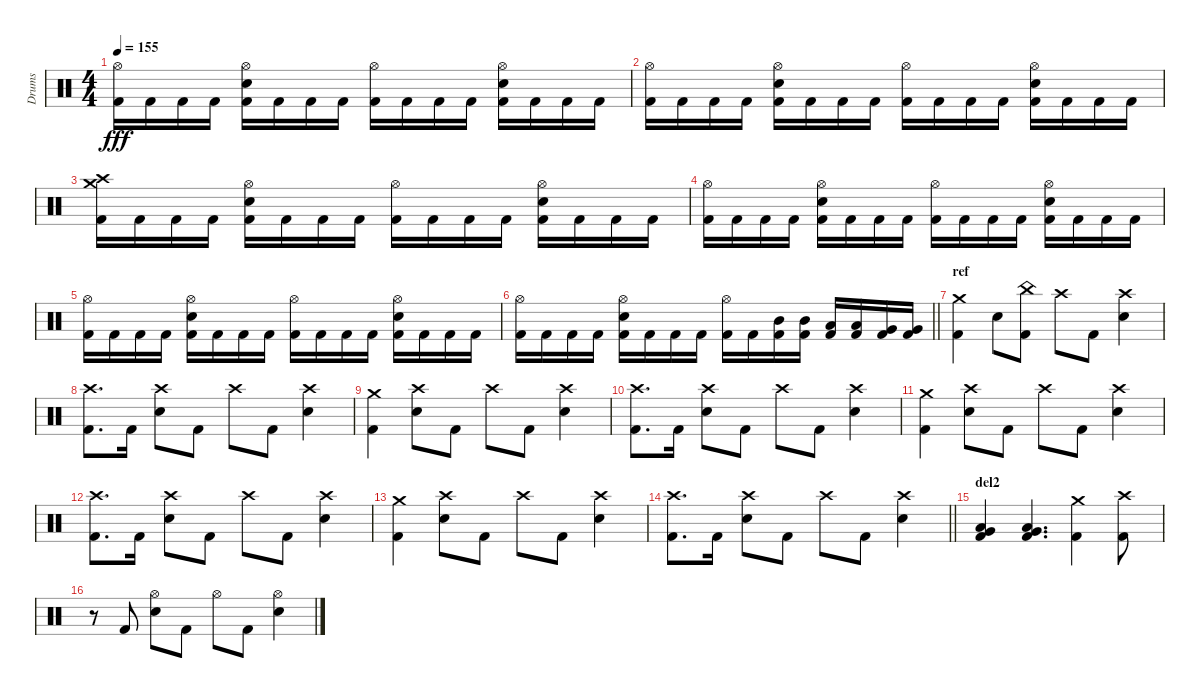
\track ("Drums" "Drums") {instrument percussion}
\staff {score}
\articulation defaults
\ts (4 4)
\tempo 155
\clef neutral
\ks c
("Hi-Hat (open)" "Kick (hit) 2").16{dy fff} "Kick (hit) 2".16 "Kick (hit) 2".16 "Kick (hit) 2".16 ("Snare (hit) 2" "Hi-Hat (open)" "Kick (hit) 2").16 "Kick (hit) 2".16 "Kick (hit) 2".16 "Kick (hit) 2".16 ("Hi-Hat (open)" "Kick (hit) 2").16 "Kick (hit) 2".16 "Kick (hit) 2".16 "Kick (hit) 2".16 ("Snare (hit) 2" "Hi-Hat (open)" "Kick (hit) 2").16 "Kick (hit) 2".16 "Kick (hit) 2".16 "Kick (hit) 2".16 |
("Hi-Hat (open)" "Kick (hit) 2").16 "Kick (hit) 2".16 "Kick (hit) 2".16 "Kick (hit) 2".16 ("Snare (hit) 2" "Hi-Hat (open)" "Kick (hit) 2").16 "Kick (hit) 2".16 "Kick (hit) 2".16 "Kick (hit) 2".16 ("Hi-Hat (open)" "Kick (hit) 2").16 "Kick (hit) 2".16 "Kick (hit) 2".16 "Kick (hit) 2".16 ("Snare (hit) 2" "Hi-Hat (open)" "Kick (hit) 2").16 "Kick (hit) 2".16 "Kick (hit) 2".16 "Kick (hit) 2".16 |
("Crash high (hit)" "Crash medium (hit)" "Kick (hit) 2").16 "Kick (hit) 2".16 "Kick (hit) 2".16 "Kick (hit) 2".16 ("Snare (hit) 2" "Hi-Hat (open)" "Kick (hit) 2").16 "Kick (hit) 2".16 "Kick (hit) 2".16 "Kick (hit) 2".16 ("Hi-Hat (open)" "Kick (hit) 2").16 "Kick (hit) 2".16 "Kick (hit) 2".16 "Kick (hit) 2".16 ("Snare (hit) 2" "Hi-Hat (open)" "Kick (hit) 2").16 "Kick (hit) 2".16 "Kick (hit) 2".16 "Kick (hit) 2".16 |
("Hi-Hat (open)" "Kick (hit) 2").16 "Kick (hit) 2".16 "Kick (hit) 2".16 "Kick (hit) 2".16 ("Snare (hit) 2" "Hi-Hat (open)" "Kick (hit) 2").16 "Kick (hit) 2".16 "Kick (hit) 2".16 "Kick (hit) 2".16 ("Hi-Hat (open)" "Kick (hit) 2").16 "Kick (hit) 2".16 "Kick (hit) 2".16 "Kick (hit) 2".16 ("Snare (hit) 2" "Hi-Hat (open)" "Kick (hit) 2").16 "Kick (hit) 2".16 "Kick (hit) 2".16 "Kick (hit) 2".16 |
("Hi-Hat (open)" "Kick (hit) 2").16 "Kick (hit) 2".16 "Kick (hit) 2".16 "Kick (hit) 2".16 ("Snare (hit) 2" "Hi-Hat (open)" "Kick (hit) 2").16 "Kick (hit) 2".16 "Kick (hit) 2".16 "Kick (hit) 2".16 ("Hi-Hat (open)" "Kick (hit) 2").16 "Kick (hit) 2".16 "Kick (hit) 2".16 "Kick (hit) 2".16 ("Snare (hit) 2" "Hi-Hat (open)" "Kick (hit) 2").16 "Kick (hit) 2".16 "Kick (hit) 2".16 "Kick (hit) 2".16 |
\barLineRight lightlight
("Hi-Hat (open)" "Kick (hit) 2").16 "Kick (hit) 2".16 "Kick (hit) 2".16 "Kick (hit) 2".16 ("Snare (hit) 2" "Hi-Hat (open)" "Kick (hit) 2").16 "Kick (hit) 2".16 "Kick (hit) 2".16 "Kick (hit) 2".16 ("Hi-Hat (open)" "Kick (hit) 2").16 "Kick (hit) 2".16 ("Mid Tom (hit)" "Kick (hit) 2").16 ("Mid Tom (hit)" "Kick (hit) 2").16 ("Low Tom (hit)" "Kick (hit) 2").16 ("Low Tom (hit)" "Kick (hit) 2").16 ("Very Low Tom (hit)" "Kick (hit) 2").16 ("Very Low Tom (hit)" "Kick (hit) 2").16 |
\section ("" "ref")
("Crash medium (hit)" "Kick (hit) 2").4 "Snare (hit) 2".8 ("China (hit)" "Kick (hit) 2").8 "Crash high (hit)".8 "Kick (hit) 2".8 ("Crash high (hit)" "Snare (hit) 2").4 |
("Crash high (hit)" "Kick (hit) 2").8{d} "Kick (hit) 2".16 ("Crash high (hit)" "Snare (hit) 2").8 "Kick (hit) 2".8 "Crash high (hit)".8 "Kick (hit) 2".8 ("Crash high (hit)" "Snare (hit) 2").4 |
("Crash medium (hit)" "Kick (hit) 2").4 ("Crash high (hit)" "Snare (hit) 2").8 "Kick (hit) 2".8 "Crash high (hit)".8 "Kick (hit) 2".8 ("Crash high (hit)" "Snare (hit) 2").4 |
("Crash high (hit)" "Kick (hit) 2").8{d} "Kick (hit) 2".16 ("Crash high (hit)" "Snare (hit) 2").8 "Kick (hit) 2".8 "Crash high (hit)".8 "Kick (hit) 2".8 ("Crash high (hit)" "Snare (hit) 2").4 |
("Crash medium (hit)" "Kick (hit) 2").4 ("Crash high (hit)" "Snare (hit) 2").8 "Kick (hit) 2".8 "Crash high (hit)".8 "Kick (hit) 2".8 ("Crash high (hit)" "Snare (hit) 2").4 |
("Crash high (hit)" "Kick (hit) 2").8{d} "Kick (hit) 2".16 ("Crash high (hit)" "Snare (hit) 2").8 "Kick (hit) 2".8 "Crash high (hit)".8 "Kick (hit) 2".8 ("Crash high (hit)" "Snare (hit) 2").4 |
("Crash medium (hit)" "Kick (hit) 2").4 ("Crash high (hit)" "Snare (hit) 2").8 "Kick (hit) 2".8 "Crash high (hit)".8 "Kick (hit) 2".8 ("Crash high (hit)" "Snare (hit) 2").4 |
\barLineRight lightlight
("Crash high (hit)" "Kick (hit) 2").8{d} "Kick (hit) 2".16 ("Crash high (hit)" "Snare (hit) 2").8 "Kick (hit) 2".8 "Crash high (hit)".8 "Kick (hit) 2".8 ("Crash high (hit)" "Snare (hit) 2").4 |
\section ("" "del2")
("Very Low Tom (hit)" "Low Floor Tom (hit)" "Kick (hit) 2").4 ("Very Low Tom (hit)" "Low Floor Tom (hit)" "Kick (hit) 2").4{d} ("Crash medium (hit)" "Kick (hit) 2").4 ("Crash high (hit)" "Kick (hit) 2").8 |
r.8 "Kick (hit) 2".8 ("Snare (hit) 2" "Hi-Hat (open)").8 "Kick (hit) 2".8 "Hi-Hat (open)".8 "Kick (hit) 2".8 ("Snare (hit) 2" "Hi-Hat (open)").4
